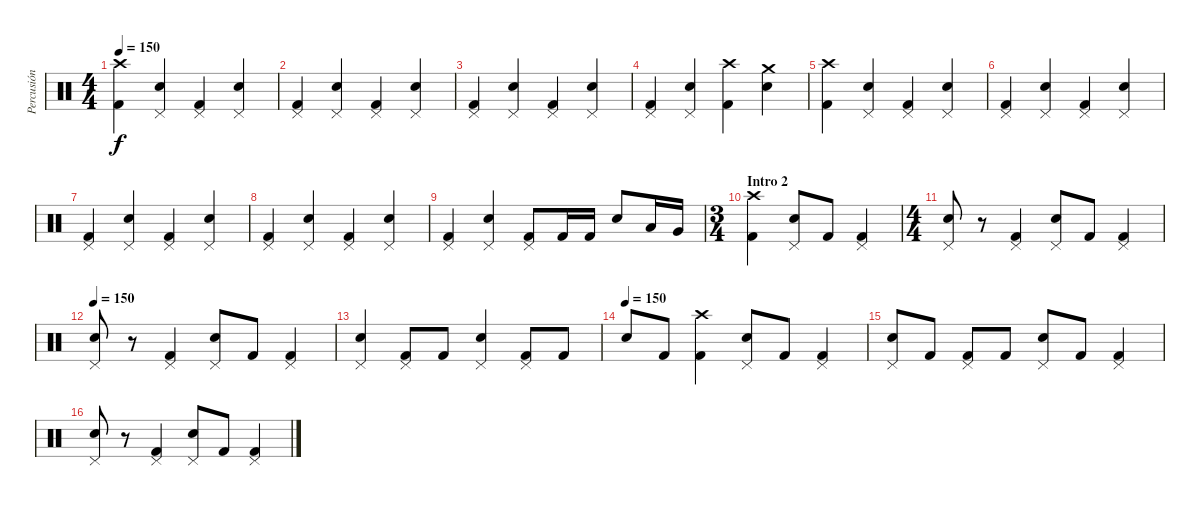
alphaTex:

\track ("Percusión" "Percusión") {instrument percussion}
\staff {score}
\articulation defaults
\ts (4 4)
\tempo 150
\clef neutral
\ks c
("Crash high (hit)" "Kick (hit) 2").4{dy f} ("Pedal Hi-Hat (hit)" "Electric Snare (hit)").4 ("Pedal Hi-Hat (hit)" "Kick (hit) 2").4 ("Pedal Hi-Hat (hit)" "Electric Snare (hit)").4 |
("Pedal Hi-Hat (hit)" "Kick (hit) 2").4 ("Pedal Hi-Hat (hit)" "Electric Snare (hit)").4 ("Pedal Hi-Hat (hit)" "Kick (hit) 2").4 ("Pedal Hi-Hat (hit)" "Electric Snare (hit)").4 |
("Pedal Hi-Hat (hit)" "Kick (hit) 2").4 ("Pedal Hi-Hat (hit)" "Electric Snare (hit)").4 ("Pedal Hi-Hat (hit)" "Kick (hit) 2").4 ("Pedal Hi-Hat (hit)" "Electric Snare (hit)").4 |
("Pedal Hi-Hat (hit)" "Kick (hit) 2").4 ("Pedal Hi-Hat (hit)" "Electric Snare (hit)").4 ("Crash high (hit)" "Kick (hit) 2").4 ("Crash medium (hit)" "Electric Snare (hit)").4 |
("Crash high (hit)" "Kick (hit) 2").4 ("Pedal Hi-Hat (hit)" "Electric Snare (hit)").4 ("Pedal Hi-Hat (hit)" "Kick (hit) 2").4 ("Pedal Hi-Hat (hit)" "Electric Snare (hit)").4 |
("Pedal Hi-Hat (hit)" "Kick (hit) 2").4 ("Pedal Hi-Hat (hit)" "Electric Snare (hit)").4 ("Pedal Hi-Hat (hit)" "Kick (hit) 2").4 ("Pedal Hi-Hat (hit)" "Electric Snare (hit)").4 |
("Pedal Hi-Hat (hit)" "Kick (hit) 2").4 ("Pedal Hi-Hat (hit)" "Electric Snare (hit)").4 ("Pedal Hi-Hat (hit)" "Kick (hit) 2").4 ("Pedal Hi-Hat (hit)" "Electric Snare (hit)").4 |
("Pedal Hi-Hat (hit)" "Kick (hit) 2").4 ("Pedal Hi-Hat (hit)" "Electric Snare (hit)").4 ("Pedal Hi-Hat (hit)" "Kick (hit) 2").4 ("Pedal Hi-Hat (hit)" "Electric Snare (hit)").4 |
("Pedal Hi-Hat (hit)" "Kick (hit) 2").4 ("Pedal Hi-Hat (hit)" "Electric Snare (hit)").4 ("Pedal Hi-Hat (hit)" "Kick (hit) 2").8 "Kick (hit) 2".16 "Kick (hit) 2".16 "Electric Snare (hit)".8 "Low Tom (hit)".16 "Very Low Tom (hit)".16 |
\ts (3 4)
\section ("" "Intro 2")
("Crash high (hit)" "Kick (hit) 2").4 ("Pedal Hi-Hat (hit)" "Electric Snare (hit)").8 "Kick (hit) 2".8 ("Pedal Hi-Hat (hit)" "Kick (hit) 2").4 |
\ts (4 4)
("Pedal Hi-Hat (hit)" "Electric Snare (hit)").8 r.8 ("Pedal Hi-Hat (hit)" "Kick (hit) 2").4 ("Pedal Hi-Hat (hit)" "Electric Snare (hit)").8 "Kick (hit) 2".8 ("Pedal Hi-Hat (hit)" "Kick (hit) 2").4 |
\tempo 150
("Pedal Hi-Hat (hit)" "Electric Snare (hit)").8 r.8 ("Pedal Hi-Hat (hit)" "Kick (hit) 2").4 ("Pedal Hi-Hat (hit)" "Electric Snare (hit)").8 "Kick (hit) 2".8 ("Pedal Hi-Hat (hit)" "Kick (hit) 2").4 |
("Pedal Hi-Hat (hit)" "Electric Snare (hit)").4 ("Pedal Hi-Hat (hit)" "Kick (hit) 2").8 "Kick (hit) 2".8 ("Pedal Hi-Hat (hit)" "Electric Snare (hit)").4 ("Pedal Hi-Hat (hit)" "Kick (hit) 2").8 "Kick (hit) 2".8 |
\tempo (150)
"Electric Snare (hit)".8 "Kick (hit) 2".8 ("Crash high (hit)" "Kick (hit) 2").4 ("Pedal Hi-Hat (hit)" "Electric Snare (hit)").8 "Kick (hit) 2".8 ("Pedal Hi-Hat (hit)" "Kick (hit) 2").4 |
("Pedal Hi-Hat (hit)" "Electric Snare (hit)").8 "Kick (hit) 2".8 ("Pedal Hi-Hat (hit)" "Kick (hit) 2").8 "Kick (hit) 2".8 ("Pedal Hi-Hat (hit)" "Electric Snare (hit)").8 "Kick (hit) 2".8 ("Pedal Hi-Hat (hit)" "Kick (hit) 2").4 |
("Pedal Hi-Hat (hit)" "Electric Snare (hit)").8 r.8 ("Pedal Hi-Hat (hit)" "Kick (hit) 2").4 ("Pedal Hi-Hat (hit)" "Electric Snare (hit)").8 "Kick (hit) 2".8 ("Pedal Hi-Hat (hit)" "Kick (hit) 2").4
